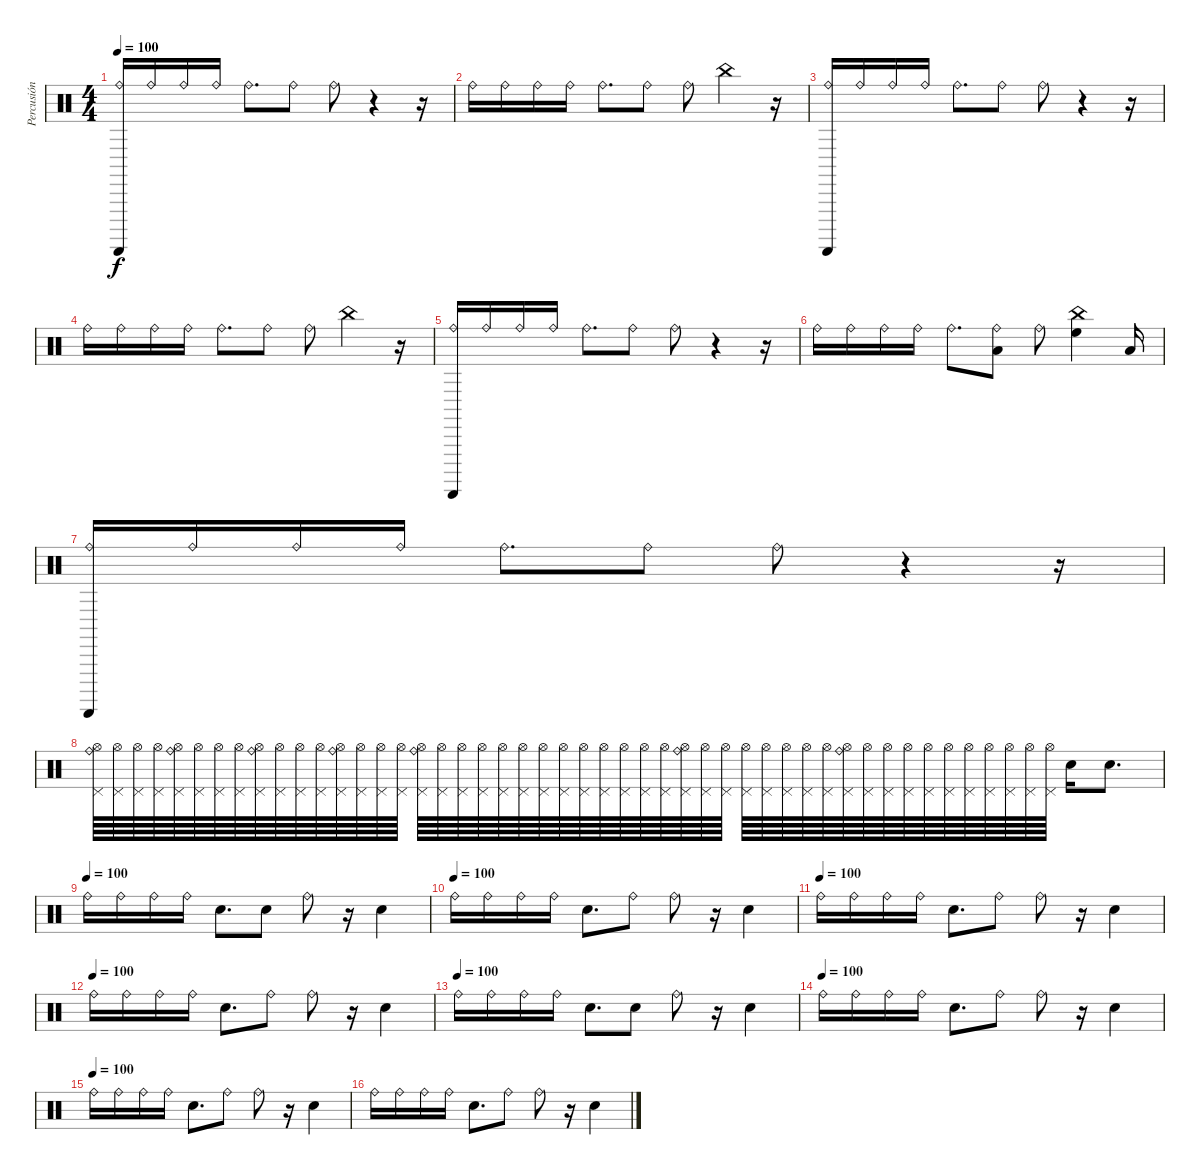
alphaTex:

\track ("Percusión" "Percusión") {instrument percussion}
\staff {score}
\articulation defaults
\ts (4 4)
\tempo 100
\clef neutral
\ks c
("Ride (bell)" "Guiro (scrap-return)").16{dy f} "Ride (bell)".16 "Ride (bell)".16 "Ride (bell)".16 "Ride (bell)".8{d} "Ride (bell)".8 "Ride (bell)".8 r.4 r.16 |
"Ride (bell)".16 "Ride (bell)".16 "Ride (bell)".16 "Ride (bell)".16 "Ride (bell)".8{d} "Ride (bell)".8 "Ride (bell)".8 "China (hit)".4 r.16 |
("Ride (bell)" "Guiro (scrap-return)").16 "Ride (bell)".16 "Ride (bell)".16 "Ride (bell)".16 "Ride (bell)".8{d} "Ride (bell)".8 "Ride (bell)".8 r.4 r.16 |
"Ride (bell)".16 "Ride (bell)".16 "Ride (bell)".16 "Ride (bell)".16 "Ride (bell)".8{d} "Ride (bell)".8 "Ride (bell)".8 "China (hit)".4 r.16 |
("Ride (bell)" "Guiro (scrap-return)").16 "Ride (bell)".16 "Ride (bell)".16 "Ride (bell)".16 "Ride (bell)".8{d} "Ride (bell)".8 "Ride (bell)".8 r.4 r.16 |
"Ride (bell)".16 "Ride (bell)".16 "Ride (bell)".16 "Ride (bell)".16 "Ride (bell)".8{d} ("Low Tom (hit)" "Ride (bell)").8 "Ride (bell)".8 ("China (hit)" "High Floor Tom (hit)").4 "Low Tom (hit)".16 |
("Ride (bell)" "Guiro (scrap-return)").16 "Ride (bell)".16 "Ride (bell)".16 "Ride (bell)".16 "Ride (bell)".8{d} "Ride (bell)".8 "Ride (bell)".8 r.4 r.16 |
("Hi-Hat (open)" "Pedal Hi-Hat (hit)" "Ride (bell)").64 ("Hi-Hat (open)" "Pedal Hi-Hat (hit)").64 ("Hi-Hat (open)" "Pedal Hi-Hat (hit)").64 ("Hi-Hat (open)" "Pedal Hi-Hat (hit)").64 ("Hi-Hat (open)" "Pedal Hi-Hat (hit)" "Ride (bell)").64 ("Hi-Hat (open)" "Pedal Hi-Hat (hit)").64 ("Hi-Hat (open)" "Pedal Hi-Hat (hit)").64 ("Hi-Hat (open)" "Pedal Hi-Hat (hit)").64 ("Hi-Hat (open)" "Pedal Hi-Hat (hit)" "Ride (bell)").64 ("Hi-Hat (open)" "Pedal Hi-Hat (hit)").64 ("Hi-Hat (open)" "Pedal Hi-Hat (hit)").64 ("Hi-Hat (open)" "Pedal Hi-Hat (hit)").64 ("Hi-Hat (open)" "Pedal Hi-Hat (hit)" "Ride (bell)").64 ("Hi-Hat (open)" "Pedal Hi-Hat (hit)").64 ("Hi-Hat (open)" "Pedal Hi-Hat (hit)").64 ("Hi-Hat (open)" "Pedal Hi-Hat (hit)").64 ("Hi-Hat (open)" "Pedal Hi-Hat (hit)" "Ride (bell)").64 ("Hi-Hat (open)" "Pedal Hi-Hat (hit)").64 ("Hi-Hat (open)" "Pedal Hi-Hat (hit)").64 ("Hi-Hat (open)" "Pedal Hi-Hat (hit)").64 ("Hi-Hat (open)" "Pedal Hi-Hat (hit)").64 ("Hi-Hat (open)" "Pedal Hi-Hat (hit)").64 ("Hi-Hat (open)" "Pedal Hi-Hat (hit)").64 ("Hi-Hat (open)" "Pedal Hi-Hat (hit)").64 ("Hi-Hat (open)" "Pedal Hi-Hat (hit)").64 ("Hi-Hat (open)" "Pedal Hi-Hat (hit)").64 ("Hi-Hat (open)" "Pedal Hi-Hat (hit)").64 ("Hi-Hat (open)" "Pedal Hi-Hat (hit)").64 ("Hi-Hat (open)" "Pedal Hi-Hat (hit)").64 ("Hi-Hat (open)" "Pedal Hi-Hat (hit)" "Ride (bell)").64 ("Hi-Hat (open)" "Pedal Hi-Hat (hit)").64 ("Hi-Hat (open)" "Pedal Hi-Hat (hit)").64 ("Hi-Hat (open)" "Pedal Hi-Hat (hit)").64 ("Hi-Hat (open)" "Pedal Hi-Hat (hit)").64 ("Hi-Hat (open)" "Pedal Hi-Hat (hit)").64 ("Hi-Hat (open)" "Pedal Hi-Hat (hit)").64 ("Hi-Hat (open)" "Pedal Hi-Hat (hit)").64 ("Hi-Hat (open)" "Pedal Hi-Hat (hit)" "Ride (bell)").64 ("Hi-Hat (open)" "Pedal Hi-Hat (hit)").64 ("Hi-Hat (open)" "Pedal Hi-Hat (hit)").64 ("Hi-Hat (open)" "Pedal Hi-Hat (hit)").64 ("Hi-Hat (open)" "Pedal Hi-Hat (hit)").64 ("Hi-Hat (open)" "Pedal Hi-Hat (hit)").64 ("Hi-Hat (open)" "Pedal Hi-Hat (hit)").64 ("Hi-Hat (open)" "Pedal Hi-Hat (hit)").64 ("Hi-Hat (open)" "Pedal Hi-Hat (hit)").64 ("Hi-Hat (open)" "Pedal Hi-Hat (hit)").64 ("Hi-Hat (open)" "Pedal Hi-Hat (hit)").64 "Electric Snare (hit)".16 "Electric Snare (hit)".8{d} |
\tempo (100)
"Ride (bell)".16 "Ride (bell)".16 "Ride (bell)".16 "Ride (bell)".16 "Electric Snare (hit)".8{d} "Electric Snare (hit)".8 "Ride (bell)".8 r.16 "Electric Snare (hit)".4 |
\tempo (100)
"Ride (bell)".16 "Ride (bell)".16 "Ride (bell)".16 "Ride (bell)".16 "Electric Snare (hit)".8{d} "Ride (bell)".8 "Ride (bell)".8 r.16 "Electric Snare (hit)".4 |
\tempo (100)
"Ride (bell)".16 "Ride (bell)".16 "Ride (bell)".16 "Ride (bell)".16 "Electric Snare (hit)".8{d} "Ride (bell)".8 "Ride (bell)".8 r.16 "Electric Snare (hit)".4 |
\tempo (100)
"Ride (bell)".16 "Ride (bell)".16 "Ride (bell)".16 "Ride (bell)".16 "Electric Snare (hit)".8{d} "Ride (bell)".8 "Ride (bell)".8 r.16 "Electric Snare (hit)".4 |
\tempo (100)
"Ride (bell)".16 "Ride (bell)".16 "Ride (bell)".16 "Ride (bell)".16 "Electric Snare (hit)".8{d} "Electric Snare (hit)".8 "Ride (bell)".8 r.16 "Electric Snare (hit)".4 |
\tempo (100)
"Ride (bell)".16 "Ride (bell)".16 "Ride (bell)".16 "Ride (bell)".16 "Electric Snare (hit)".8{d} "Ride (bell)".8 "Ride (bell)".8 r.16 "Electric Snare (hit)".4 |
\tempo (100)
"Ride (bell)".16 "Ride (bell)".16 "Ride (bell)".16 "Ride (bell)".16 "Electric Snare (hit)".8{d} "Ride (bell)".8 "Ride (bell)".8 r.16 "Electric Snare (hit)".4 |
"Ride (bell)".16 "Ride (bell)".16 "Ride (bell)".16 "Ride (bell)".16 "Electric Snare (hit)".8{d} "Ride (bell)".8 "Ride (bell)".8 r.16 "Electric Snare (hit)".4
